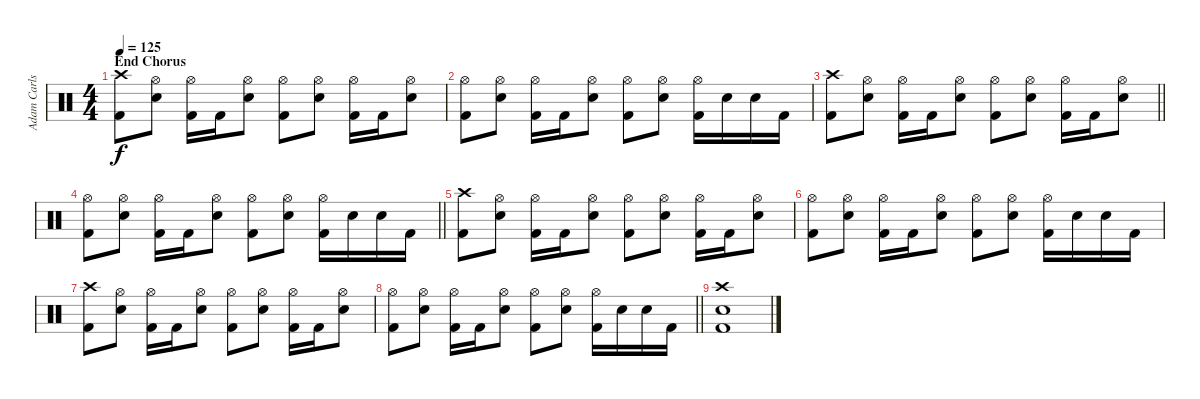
\track ("Adam Carlson" "Adam Carls") {instrument percussion}
\staff {score}
\articulation defaults
\ts (4 4)
\section ("" "End Chorus")
\tempo 125
\clef neutral
\ks c
("Crash high (hit)" "Kick (hit) 2").8{dy f} ("Hi-Hat (open)" "Electric Snare (hit)").8 ("Hi-Hat (open)" "Kick (hit) 2").16 "Kick (hit) 2".16 ("Hi-Hat (open)" "Electric Snare (hit)").8 ("Hi-Hat (open)" "Kick (hit) 2").8 ("Hi-Hat (open)" "Electric Snare (hit)").8 ("Hi-Hat (open)" "Kick (hit) 2").16 "Kick (hit) 2".16 ("Hi-Hat (open)" "Electric Snare (hit)").8 |
("Hi-Hat (open)" "Kick (hit) 2").8 ("Hi-Hat (open)" "Electric Snare (hit)").8 ("Hi-Hat (open)" "Kick (hit) 2").16 "Kick (hit) 2".16 ("Hi-Hat (open)" "Electric Snare (hit)").8 ("Hi-Hat (open)" "Kick (hit) 2").8 ("Hi-Hat (open)" "Electric Snare (hit)").8 ("Hi-Hat (open)" "Kick (hit) 2").16 "Electric Snare (hit)".16 "Electric Snare (hit)".16 "Kick (hit) 2".16 |
\barLineRight lightlight
("Crash high (hit)" "Kick (hit) 2").8 ("Hi-Hat (open)" "Electric Snare (hit)").8 ("Hi-Hat (open)" "Kick (hit) 2").16 "Kick (hit) 2".16 ("Hi-Hat (open)" "Electric Snare (hit)").8 ("Hi-Hat (open)" "Kick (hit) 2").8 ("Hi-Hat (open)" "Electric Snare (hit)").8 ("Hi-Hat (open)" "Kick (hit) 2").16 "Kick (hit) 2".16 ("Hi-Hat (open)" "Electric Snare (hit)").8 |
\barLineRight lightlight
("Hi-Hat (open)" "Kick (hit) 2").8 ("Hi-Hat (open)" "Electric Snare (hit)").8 ("Hi-Hat (open)" "Kick (hit) 2").16 "Kick (hit) 2".16 ("Hi-Hat (open)" "Electric Snare (hit)").8 ("Hi-Hat (open)" "Kick (hit) 2").8 ("Hi-Hat (open)" "Electric Snare (hit)").8 ("Hi-Hat (open)" "Kick (hit) 2").16 "Electric Snare (hit)".16 "Electric Snare (hit)".16 "Kick (hit) 2".16 |
("Crash high (hit)" "Kick (hit) 2").8 ("Hi-Hat (open)" "Electric Snare (hit)").8 ("Hi-Hat (open)" "Kick (hit) 2").16 "Kick (hit) 2".16 ("Hi-Hat (open)" "Electric Snare (hit)").8 ("Hi-Hat (open)" "Kick (hit) 2").8 ("Hi-Hat (open)" "Electric Snare (hit)").8 ("Hi-Hat (open)" "Kick (hit) 2").16 "Kick (hit) 2".16 ("Hi-Hat (open)" "Electric Snare (hit)").8 |
("Hi-Hat (open)" "Kick (hit) 2").8 ("Hi-Hat (open)" "Electric Snare (hit)").8 ("Hi-Hat (open)" "Kick (hit) 2").16 "Kick (hit) 2".16 ("Hi-Hat (open)" "Electric Snare (hit)").8 ("Hi-Hat (open)" "Kick (hit) 2").8 ("Hi-Hat (open)" "Electric Snare (hit)").8 ("Hi-Hat (open)" "Kick (hit) 2").16 "Electric Snare (hit)".16 "Electric Snare (hit)".16 "Kick (hit) 2".16 |
("Crash high (hit)" "Kick (hit) 2").8 ("Hi-Hat (open)" "Electric Snare (hit)").8 ("Hi-Hat (open)" "Kick (hit) 2").16 "Kick (hit) 2".16 ("Hi-Hat (open)" "Electric Snare (hit)").8 ("Hi-Hat (open)" "Kick (hit) 2").8 ("Hi-Hat (open)" "Electric Snare (hit)").8 ("Hi-Hat (open)" "Kick (hit) 2").16 "Kick (hit) 2".16 ("Hi-Hat (open)" "Electric Snare (hit)").8 |
\barLineRight lightlight
("Hi-Hat (open)" "Kick (hit) 2").8 ("Hi-Hat (open)" "Electric Snare (hit)").8 ("Hi-Hat (open)" "Kick (hit) 2").16 "Kick (hit) 2".16 ("Hi-Hat (open)" "Electric Snare (hit)").8 ("Hi-Hat (open)" "Kick (hit) 2").8 ("Hi-Hat (open)" "Electric Snare (hit)").8 ("Hi-Hat (open)" "Kick (hit) 2").16 "Electric Snare (hit)".16 "Electric Snare (hit)".16 "Kick (hit) 2".16 |
("Electric Snare (hit)" "Crash high (hit)" "Kick (hit) 2").1
